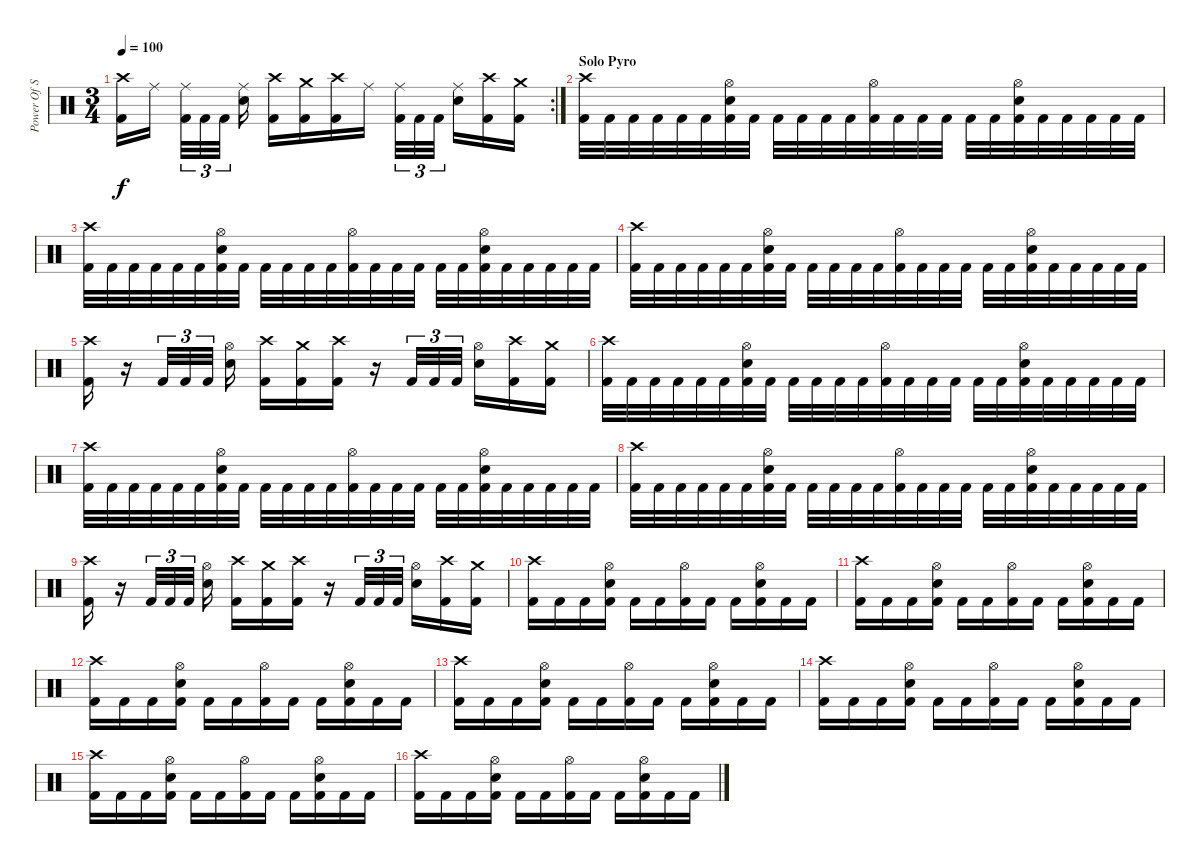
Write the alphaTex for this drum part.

\track ("Power Of Steel" "Power Of S") {instrument percussion}
\staff {score}
\articulation defaults
\rc 2
\ts (3 4)
\tempo 100
\clef neutral
\ks c
("Crash high (hit)" "Kick (hit) 2").16{dy f} "Ride (middle)".16 ("Ride (middle)" "Kick (hit) 2").32{tu (3 2)} "Kick (hit) 2".32{tu (3 2)} "Kick (hit) 2".32{tu (3 2)} ("Ride (middle)" "Electric Snare (hit)").16 ("Crash high (hit)" "Kick (hit) 2").16 ("Crash medium (hit)" "Kick (hit) 2").16 ("Crash high (hit)" "Kick (hit) 2").16 "Ride (middle)".16 ("Ride (middle)" "Kick (hit) 2").32{tu (3 2)} "Kick (hit) 2".32{tu (3 2)} "Kick (hit) 2".32{tu (3 2)} ("Ride (middle)" "Electric Snare (hit)").16 ("Crash high (hit)" "Kick (hit) 2").16 ("Crash medium (hit)" "Kick (hit) 2").16 |
\section ("" "Solo Pyro")
("Crash high (hit)" "Kick (hit) 2").32 "Kick (hit) 2".32 "Kick (hit) 2".32 "Kick (hit) 2".32 "Kick (hit) 2".32 "Kick (hit) 2".32 ("Hi-Hat (open)" "Electric Snare (hit)" "Kick (hit) 2").32 "Kick (hit) 2".32 "Kick (hit) 2".32 "Kick (hit) 2".32 "Kick (hit) 2".32 "Kick (hit) 2".32 ("Hi-Hat (open)" "Kick (hit) 2").32 "Kick (hit) 2".32 "Kick (hit) 2".32 "Kick (hit) 2".32 "Kick (hit) 2".32 "Kick (hit) 2".32 ("Hi-Hat (open)" "Electric Snare (hit)" "Kick (hit) 2").32 "Kick (hit) 2".32 "Kick (hit) 2".32 "Kick (hit) 2".32 "Kick (hit) 2".32 "Kick (hit) 2".32 |
("Crash high (hit)" "Kick (hit) 2").32 "Kick (hit) 2".32 "Kick (hit) 2".32 "Kick (hit) 2".32 "Kick (hit) 2".32 "Kick (hit) 2".32 ("Hi-Hat (open)" "Electric Snare (hit)" "Kick (hit) 2").32 "Kick (hit) 2".32 "Kick (hit) 2".32 "Kick (hit) 2".32 "Kick (hit) 2".32 "Kick (hit) 2".32 ("Hi-Hat (open)" "Kick (hit) 2").32 "Kick (hit) 2".32 "Kick (hit) 2".32 "Kick (hit) 2".32 "Kick (hit) 2".32 "Kick (hit) 2".32 ("Hi-Hat (open)" "Electric Snare (hit)" "Kick (hit) 2").32 "Kick (hit) 2".32 "Kick (hit) 2".32 "Kick (hit) 2".32 "Kick (hit) 2".32 "Kick (hit) 2".32 |
("Crash high (hit)" "Kick (hit) 2").32 "Kick (hit) 2".32 "Kick (hit) 2".32 "Kick (hit) 2".32 "Kick (hit) 2".32 "Kick (hit) 2".32 ("Hi-Hat (open)" "Electric Snare (hit)" "Kick (hit) 2").32 "Kick (hit) 2".32 "Kick (hit) 2".32 "Kick (hit) 2".32 "Kick (hit) 2".32 "Kick (hit) 2".32 ("Hi-Hat (open)" "Kick (hit) 2").32 "Kick (hit) 2".32 "Kick (hit) 2".32 "Kick (hit) 2".32 "Kick (hit) 2".32 "Kick (hit) 2".32 ("Hi-Hat (open)" "Electric Snare (hit)" "Kick (hit) 2").32 "Kick (hit) 2".32 "Kick (hit) 2".32 "Kick (hit) 2".32 "Kick (hit) 2".32 "Kick (hit) 2".32 |
("Crash high (hit)" "Kick (hit) 2").16 r.16 "Kick (hit) 2".32{tu (3 2)} "Kick (hit) 2".32{tu (3 2)} "Kick (hit) 2".32{tu (3 2)} ("Hi-Hat (open)" "Electric Snare (hit)").16 ("Crash high (hit)" "Kick (hit) 2").16 ("Crash medium (hit)" "Kick (hit) 2").16 ("Crash high (hit)" "Kick (hit) 2").16 r.16 "Kick (hit) 2".32{tu (3 2)} "Kick (hit) 2".32{tu (3 2)} "Kick (hit) 2".32{tu (3 2)} ("Hi-Hat (open)" "Electric Snare (hit)").16 ("Crash high (hit)" "Kick (hit) 2").16 ("Crash medium (hit)" "Kick (hit) 2").16 |
("Crash high (hit)" "Kick (hit) 2").32 "Kick (hit) 2".32 "Kick (hit) 2".32 "Kick (hit) 2".32 "Kick (hit) 2".32 "Kick (hit) 2".32 ("Hi-Hat (open)" "Electric Snare (hit)" "Kick (hit) 2").32 "Kick (hit) 2".32 "Kick (hit) 2".32 "Kick (hit) 2".32 "Kick (hit) 2".32 "Kick (hit) 2".32 ("Hi-Hat (open)" "Kick (hit) 2").32 "Kick (hit) 2".32 "Kick (hit) 2".32 "Kick (hit) 2".32 "Kick (hit) 2".32 "Kick (hit) 2".32 ("Hi-Hat (open)" "Electric Snare (hit)" "Kick (hit) 2").32 "Kick (hit) 2".32 "Kick (hit) 2".32 "Kick (hit) 2".32 "Kick (hit) 2".32 "Kick (hit) 2".32 |
("Crash high (hit)" "Kick (hit) 2").32 "Kick (hit) 2".32 "Kick (hit) 2".32 "Kick (hit) 2".32 "Kick (hit) 2".32 "Kick (hit) 2".32 ("Hi-Hat (open)" "Electric Snare (hit)" "Kick (hit) 2").32 "Kick (hit) 2".32 "Kick (hit) 2".32 "Kick (hit) 2".32 "Kick (hit) 2".32 "Kick (hit) 2".32 ("Hi-Hat (open)" "Kick (hit) 2").32 "Kick (hit) 2".32 "Kick (hit) 2".32 "Kick (hit) 2".32 "Kick (hit) 2".32 "Kick (hit) 2".32 ("Hi-Hat (open)" "Electric Snare (hit)" "Kick (hit) 2").32 "Kick (hit) 2".32 "Kick (hit) 2".32 "Kick (hit) 2".32 "Kick (hit) 2".32 "Kick (hit) 2".32 |
("Crash high (hit)" "Kick (hit) 2").32 "Kick (hit) 2".32 "Kick (hit) 2".32 "Kick (hit) 2".32 "Kick (hit) 2".32 "Kick (hit) 2".32 ("Hi-Hat (open)" "Electric Snare (hit)" "Kick (hit) 2").32 "Kick (hit) 2".32 "Kick (hit) 2".32 "Kick (hit) 2".32 "Kick (hit) 2".32 "Kick (hit) 2".32 ("Hi-Hat (open)" "Kick (hit) 2").32 "Kick (hit) 2".32 "Kick (hit) 2".32 "Kick (hit) 2".32 "Kick (hit) 2".32 "Kick (hit) 2".32 ("Hi-Hat (open)" "Electric Snare (hit)" "Kick (hit) 2").32 "Kick (hit) 2".32 "Kick (hit) 2".32 "Kick (hit) 2".32 "Kick (hit) 2".32 "Kick (hit) 2".32 |
("Crash high (hit)" "Kick (hit) 2").16 r.16 "Kick (hit) 2".32{tu (3 2)} "Kick (hit) 2".32{tu (3 2)} "Kick (hit) 2".32{tu (3 2)} ("Hi-Hat (open)" "Electric Snare (hit)").16 ("Crash high (hit)" "Kick (hit) 2").16 ("Crash medium (hit)" "Kick (hit) 2").16 ("Crash high (hit)" "Kick (hit) 2").16 r.16 "Kick (hit) 2".32{tu (3 2)} "Kick (hit) 2".32{tu (3 2)} "Kick (hit) 2".32{tu (3 2)} ("Hi-Hat (open)" "Electric Snare (hit)").16 ("Crash high (hit)" "Kick (hit) 2").16 ("Crash medium (hit)" "Kick (hit) 2").16 |
("Crash high (hit)" "Kick (hit) 2").16 "Kick (hit) 2".16 "Kick (hit) 2".16 ("Hi-Hat (open)" "Electric Snare (hit)" "Kick (hit) 2").16 "Kick (hit) 2".16 "Kick (hit) 2".16 ("Hi-Hat (open)" "Kick (hit) 2").16 "Kick (hit) 2".16 "Kick (hit) 2".16 ("Hi-Hat (open)" "Electric Snare (hit)" "Kick (hit) 2").16 "Kick (hit) 2".16 "Kick (hit) 2".16 |
("Crash high (hit)" "Kick (hit) 2").16 "Kick (hit) 2".16 "Kick (hit) 2".16 ("Hi-Hat (open)" "Electric Snare (hit)" "Kick (hit) 2").16 "Kick (hit) 2".16 "Kick (hit) 2".16 ("Hi-Hat (open)" "Kick (hit) 2").16 "Kick (hit) 2".16 "Kick (hit) 2".16 ("Hi-Hat (open)" "Electric Snare (hit)" "Kick (hit) 2").16 "Kick (hit) 2".16 "Kick (hit) 2".16 |
("Crash high (hit)" "Kick (hit) 2").16 "Kick (hit) 2".16 "Kick (hit) 2".16 ("Hi-Hat (open)" "Electric Snare (hit)" "Kick (hit) 2").16 "Kick (hit) 2".16 "Kick (hit) 2".16 ("Hi-Hat (open)" "Kick (hit) 2").16 "Kick (hit) 2".16 "Kick (hit) 2".16 ("Hi-Hat (open)" "Electric Snare (hit)" "Kick (hit) 2").16 "Kick (hit) 2".16 "Kick (hit) 2".16 |
("Crash high (hit)" "Kick (hit) 2").16 "Kick (hit) 2".16 "Kick (hit) 2".16 ("Hi-Hat (open)" "Electric Snare (hit)" "Kick (hit) 2").16 "Kick (hit) 2".16 "Kick (hit) 2".16 ("Hi-Hat (open)" "Kick (hit) 2").16 "Kick (hit) 2".16 "Kick (hit) 2".16 ("Hi-Hat (open)" "Electric Snare (hit)" "Kick (hit) 2").16 "Kick (hit) 2".16 "Kick (hit) 2".16 |
("Crash high (hit)" "Kick (hit) 2").16 "Kick (hit) 2".16 "Kick (hit) 2".16 ("Hi-Hat (open)" "Electric Snare (hit)" "Kick (hit) 2").16 "Kick (hit) 2".16 "Kick (hit) 2".16 ("Hi-Hat (open)" "Kick (hit) 2").16 "Kick (hit) 2".16 "Kick (hit) 2".16 ("Hi-Hat (open)" "Electric Snare (hit)" "Kick (hit) 2").16 "Kick (hit) 2".16 "Kick (hit) 2".16 |
("Crash high (hit)" "Kick (hit) 2").16 "Kick (hit) 2".16 "Kick (hit) 2".16 ("Hi-Hat (open)" "Electric Snare (hit)" "Kick (hit) 2").16 "Kick (hit) 2".16 "Kick (hit) 2".16 ("Hi-Hat (open)" "Kick (hit) 2").16 "Kick (hit) 2".16 "Kick (hit) 2".16 ("Hi-Hat (open)" "Electric Snare (hit)" "Kick (hit) 2").16 "Kick (hit) 2".16 "Kick (hit) 2".16 |
("Crash high (hit)" "Kick (hit) 2").16 "Kick (hit) 2".16 "Kick (hit) 2".16 ("Hi-Hat (open)" "Electric Snare (hit)" "Kick (hit) 2").16 "Kick (hit) 2".16 "Kick (hit) 2".16 ("Hi-Hat (open)" "Kick (hit) 2").16 "Kick (hit) 2".16 "Kick (hit) 2".16 ("Hi-Hat (open)" "Electric Snare (hit)" "Kick (hit) 2").16 "Kick (hit) 2".16 "Kick (hit) 2".16
